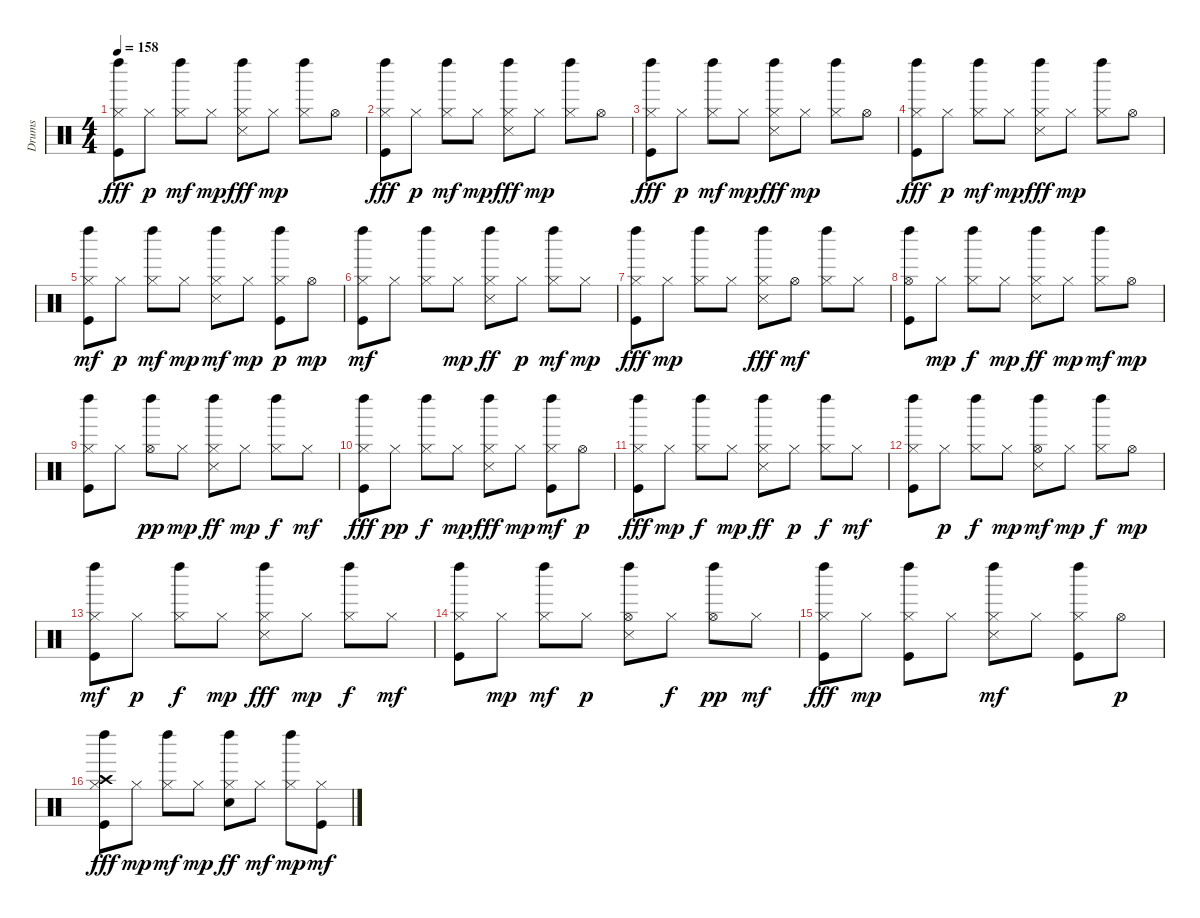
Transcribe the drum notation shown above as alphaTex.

\track ("Drums" "Drums") {instrument percussion}
\staff {score}
\articulation defaults
\ts (4 4)
\tempo 158
\clef neutral
\ks c
("Left Maraca (hit)" "Kick (hit)" "Hi-Hat (closed)").8{dy fff} "Hi-Hat (closed)".8{dy p} ("Left Maraca (hit)" "Hi-Hat (closed)").8{dy mf} "Hi-Hat (closed)".8{dy mp} ("Snare (side stick) 3" "Hi-Hat (closed)" "Left Maraca (hit)").8{dy fff} "Hi-Hat (closed)".8{dy mp} ("Hi-Hat (closed)" "Left Maraca (hit)").8 "Hi-Hat (open)".8 |
("Left Maraca (hit)" "Kick (hit)" "Hi-Hat (closed)").8{dy fff} "Hi-Hat (closed)".8{dy p} ("Left Maraca (hit)" "Hi-Hat (closed)").8{dy mf} "Hi-Hat (closed)".8{dy mp} ("Snare (side stick) 3" "Hi-Hat (closed)" "Left Maraca (hit)").8{dy fff} "Hi-Hat (closed)".8{dy mp} ("Hi-Hat (closed)" "Left Maraca (hit)").8 "Hi-Hat (open)".8 |
("Left Maraca (hit)" "Kick (hit)" "Hi-Hat (closed)").8{dy fff} "Hi-Hat (closed)".8{dy p} ("Left Maraca (hit)" "Hi-Hat (closed)").8{dy mf} "Hi-Hat (closed)".8{dy mp} ("Snare (side stick) 3" "Hi-Hat (closed)" "Left Maraca (hit)").8{dy fff} "Hi-Hat (closed)".8{dy mp} ("Hi-Hat (closed)" "Left Maraca (hit)").8 "Hi-Hat (open)".8 |
("Left Maraca (hit)" "Kick (hit)" "Hi-Hat (closed)").8{dy fff} "Hi-Hat (closed)".8{dy p} ("Left Maraca (hit)" "Hi-Hat (closed)").8{dy mf} "Hi-Hat (closed)".8{dy mp} ("Snare (side stick) 3" "Hi-Hat (closed)" "Left Maraca (hit)").8{dy fff} "Hi-Hat (closed)".8{dy mp} ("Hi-Hat (closed)" "Left Maraca (hit)").8 "Hi-Hat (open)".8 |
("Kick (hit)" "Hi-Hat (closed)" "Left Maraca (hit)").8{dy mf} "Hi-Hat (closed)".8{dy p} ("Left Maraca (hit)" "Hi-Hat (closed)").8{dy mf} "Hi-Hat (closed)".8{dy mp} ("Left Maraca (hit)" "Snare (side stick) 3" "Hi-Hat (closed)").8{dy mf} "Hi-Hat (closed)".8{dy mp} ("Left Maraca (hit)" "Kick (hit)" "Hi-Hat (closed)").8{dy p} "Hi-Hat (open)".8{dy mp} |
("Left Maraca (hit)" "Kick (hit)" "Hi-Hat (closed)").8{dy mf} "Hi-Hat (closed)".8 ("Left Maraca (hit)" "Hi-Hat (closed)").8 "Hi-Hat (closed)".8{dy mp} ("Snare (side stick) 3" "Hi-Hat (closed)" "Left Maraca (hit)").8{dy ff} "Hi-Hat (closed)".8{dy p} ("Hi-Hat (closed)" "Left Maraca (hit)").8{dy mf} "Hi-Hat (closed)".8{dy mp} |
("Hi-Hat (closed)" "Left Maraca (hit)" "Kick (hit)").8{dy fff} "Hi-Hat (closed)".8{dy mp} ("Hi-Hat (closed)" "Left Maraca (hit)").8 "Hi-Hat (closed)".8 ("Hi-Hat (closed)" "Left Maraca (hit)" "Snare (side stick) 3").8{dy fff} "Hi-Hat (open)".8{dy mf} ("Left Maraca (hit)" "Hi-Hat (closed)").8 "Hi-Hat (closed)".8 |
("Kick (hit)" "Left Maraca (hit)" "Hi-Hat (open)").8 "Hi-Hat (closed)".8{dy mp} ("Left Maraca (hit)" "Hi-Hat (closed)").8{dy f} "Hi-Hat (closed)".8{dy mp} ("Snare (side stick) 3" "Left Maraca (hit)" "Hi-Hat (closed)").8{dy ff} "Hi-Hat (closed)".8{dy mp} ("Hi-Hat (closed)" "Left Maraca (hit)").8{dy mf} "Hi-Hat (open)".8{dy mp} |
("Kick (hit)" "Hi-Hat (closed)" "Left Maraca (hit)").8 "Hi-Hat (closed)".8 ("Left Maraca (hit)" "Hi-Hat (open)").8{dy pp} "Hi-Hat (closed)".8{dy mp} ("Snare (side stick) 3" "Left Maraca (hit)" "Hi-Hat (closed)").8{dy ff} "Hi-Hat (closed)".8{dy mp} ("Hi-Hat (closed)" "Left Maraca (hit)").8{dy f} "Hi-Hat (closed)".8{dy mf} |
("Hi-Hat (closed)" "Kick (hit)" "Left Maraca (hit)").8{dy fff} "Hi-Hat (closed)".8{dy pp} ("Hi-Hat (closed)" "Left Maraca (hit)").8{dy f} "Hi-Hat (closed)".8{dy mp} ("Hi-Hat (closed)" "Snare (side stick) 3" "Left Maraca (hit)").8{dy fff} "Hi-Hat (closed)".8{dy mp} ("Kick (hit)" "Hi-Hat (closed)" "Left Maraca (hit)").8{dy mf} "Hi-Hat (open)".8{dy p} |
("Kick (hit)" "Left Maraca (hit)" "Hi-Hat (closed)").8{dy fff} "Hi-Hat (closed)".8{dy mp} ("Left Maraca (hit)" "Hi-Hat (closed)").8{dy f} "Hi-Hat (closed)".8{dy mp} ("Snare (side stick) 3" "Hi-Hat (closed)" "Left Maraca (hit)").8{dy ff} "Hi-Hat (closed)".8{dy p} ("Hi-Hat (closed)" "Left Maraca (hit)").8{dy f} "Hi-Hat (closed)".8{dy mf} |
("Kick (hit)" "Hi-Hat (closed)" "Left Maraca (hit)").8 "Hi-Hat (closed)".8{dy p} ("Hi-Hat (closed)" "Left Maraca (hit)").8{dy f} "Hi-Hat (closed)".8{dy mp} ("Snare (side stick) 3" "Hi-Hat (open)" "Left Maraca (hit)").8{dy mf} "Hi-Hat (closed)".8{dy mp} ("Hi-Hat (closed)" "Left Maraca (hit)").8{dy f} "Hi-Hat (open)".8{dy mp} |
("Kick (hit)" "Hi-Hat (closed)" "Left Maraca (hit)").8{dy mf} "Hi-Hat (closed)".8{dy p} ("Left Maraca (hit)" "Hi-Hat (closed)").8{dy f} "Hi-Hat (closed)".8{dy mp} ("Left Maraca (hit)" "Hi-Hat (closed)" "Snare (side stick) 3").8{dy fff} "Hi-Hat (closed)".8{dy mp} ("Hi-Hat (closed)" "Left Maraca (hit)").8{dy f} "Hi-Hat (closed)".8{dy mf} |
("Hi-Hat (closed)" "Kick (hit)" "Left Maraca (hit)").8 "Hi-Hat (closed)".8{dy mp} ("Hi-Hat (closed)" "Left Maraca (hit)").8{dy mf} "Hi-Hat (closed)".8{dy p} ("Left Maraca (hit)" "Snare (side stick) 3" "Hi-Hat (open)").8 "Hi-Hat (closed)".8{dy f} ("Left Maraca (hit)" "Hi-Hat (open)").8{dy pp} "Hi-Hat (closed)".8{dy mf} |
("Left Maraca (hit)" "Kick (hit)" "Hi-Hat (closed)").8{dy fff} "Hi-Hat (closed)".8{dy mp} ("Kick (hit)" "Hi-Hat (closed)" "Left Maraca (hit)").8 "Hi-Hat (closed)".8 ("Snare (side stick) 3" "Hi-Hat (closed)" "Left Maraca (hit)").8{dy mf} "Hi-Hat (closed)".8 ("Kick (hit)" "Hi-Hat (closed)" "Left Maraca (hit)").8 "Hi-Hat (open)".8{dy p} |
("Hi-Hat (closed)" "Crash high (hit)" "Left Maraca (hit)" "Kick (hit)").8{dy fff} "Hi-Hat (closed)".8{dy mp} ("Hi-Hat (closed)" "Left Maraca (hit)").8{dy mf} "Hi-Hat (closed)".8{dy mp} ("Electric Snare (hit)" "Hi-Hat (closed)" "Left Maraca (hit)").8{dy ff} "Hi-Hat (closed)".8{dy mf} ("Hi-Hat (closed)" "Left Maraca (hit)").8{dy mp} ("Kick (hit)" "Hi-Hat (closed)").8{dy mf}
